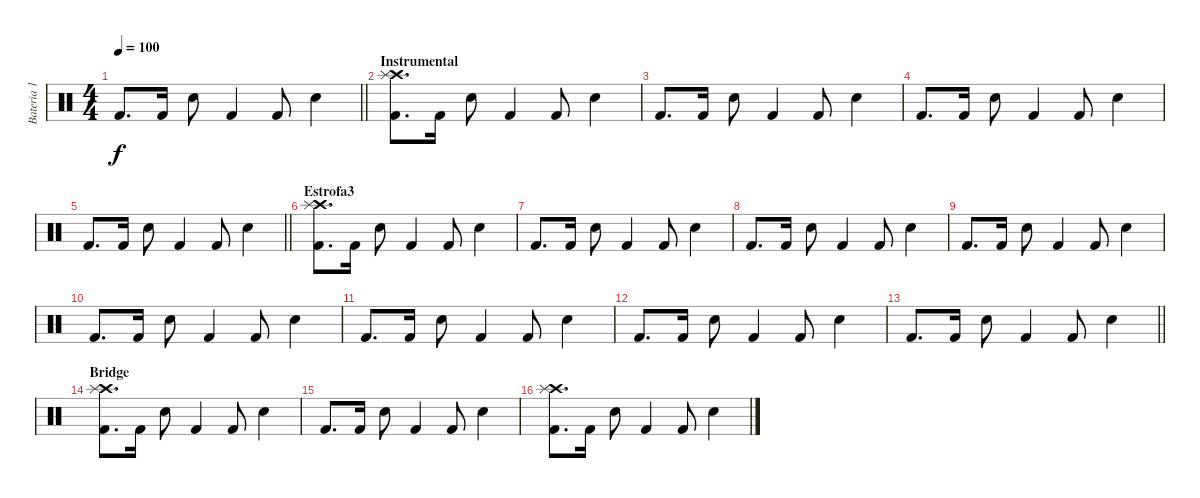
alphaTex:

\track ("Bateria 1" "Bateria 1") {instrument percussion}
\staff {score}
\articulation defaults
\ts (4 4)
\tempo 100
\clef neutral
\barLineRight lightlight
\ks c "Kick (hit) 2".8{d dy f} "Kick (hit) 2".16 "Electric Snare (hit)".8 "Kick (hit) 2".4 "Kick (hit) 2".8 "Electric Snare (hit)".4
|
\section ("" "Instrumental")
("Crash high (hit)" "Kick (hit) 2" "Splash (hit)").8{d} "Kick (hit) 2".16 "Electric Snare (hit)".8 "Kick (hit) 2".4 "Kick (hit) 2".8 "Electric Snare (hit)".4 |
"Kick (hit) 2".8{d} "Kick (hit) 2".16 "Electric Snare (hit)".8 "Kick (hit) 2".4 "Kick (hit) 2".8 "Electric Snare (hit)".4 |
"Kick (hit) 2".8{d} "Kick (hit) 2".16 "Electric Snare (hit)".8 "Kick (hit) 2".4 "Kick (hit) 2".8 "Electric Snare (hit)".4 |
\barLineRight lightlight "Kick (hit) 2".8{d} "Kick (hit) 2".16 "Electric Snare (hit)".8 "Kick (hit) 2".4 "Kick (hit) 2".8 "Electric Snare (hit)".4
|
\section ("" "Estrofa3")
("Crash high (hit)" "Kick (hit) 2" "Splash (hit)").8{d} "Kick (hit) 2".16 "Electric Snare (hit)".8 "Kick (hit) 2".4 "Kick (hit) 2".8 "Electric Snare (hit)".4 |
"Kick (hit) 2".8{d} "Kick (hit) 2".16 "Electric Snare (hit)".8 "Kick (hit) 2".4 "Kick (hit) 2".8 "Electric Snare (hit)".4 |
"Kick (hit) 2".8{d} "Kick (hit) 2".16 "Electric Snare (hit)".8 "Kick (hit) 2".4 "Kick (hit) 2".8 "Electric Snare (hit)".4 |
"Kick (hit) 2".8{d} "Kick (hit) 2".16 "Electric Snare (hit)".8 "Kick (hit) 2".4 "Kick (hit) 2".8 "Electric Snare (hit)".4 |
"Kick (hit) 2".8{d} "Kick (hit) 2".16 "Electric Snare (hit)".8 "Kick (hit) 2".4 "Kick (hit) 2".8 "Electric Snare (hit)".4 |
"Kick (hit) 2".8{d} "Kick (hit) 2".16 "Electric Snare (hit)".8 "Kick (hit) 2".4 "Kick (hit) 2".8 "Electric Snare (hit)".4 |
"Kick (hit) 2".8{d} "Kick (hit) 2".16 "Electric Snare (hit)".8 "Kick (hit) 2".4 "Kick (hit) 2".8 "Electric Snare (hit)".4 |
\barLineRight lightlight "Kick (hit) 2".8{d} "Kick (hit) 2".16 "Electric Snare (hit)".8 "Kick (hit) 2".4 "Kick (hit) 2".8 "Electric Snare (hit)".4
|
\section ("" "Bridge")
("Crash high (hit)" "Kick (hit) 2" "Splash (hit)").8{d} "Kick (hit) 2".16 "Electric Snare (hit)".8 "Kick (hit) 2".4 "Kick (hit) 2".8 "Electric Snare (hit)".4 |
"Kick (hit) 2".8{d} "Kick (hit) 2".16 "Electric Snare (hit)".8 "Kick (hit) 2".4 "Kick (hit) 2".8 "Electric Snare (hit)".4 |
("Crash high (hit)" "Kick (hit) 2" "Splash (hit)").8{d} "Kick (hit) 2".16 "Electric Snare (hit)".8 "Kick (hit) 2".4 "Kick (hit) 2".8 "Electric Snare (hit)".4
